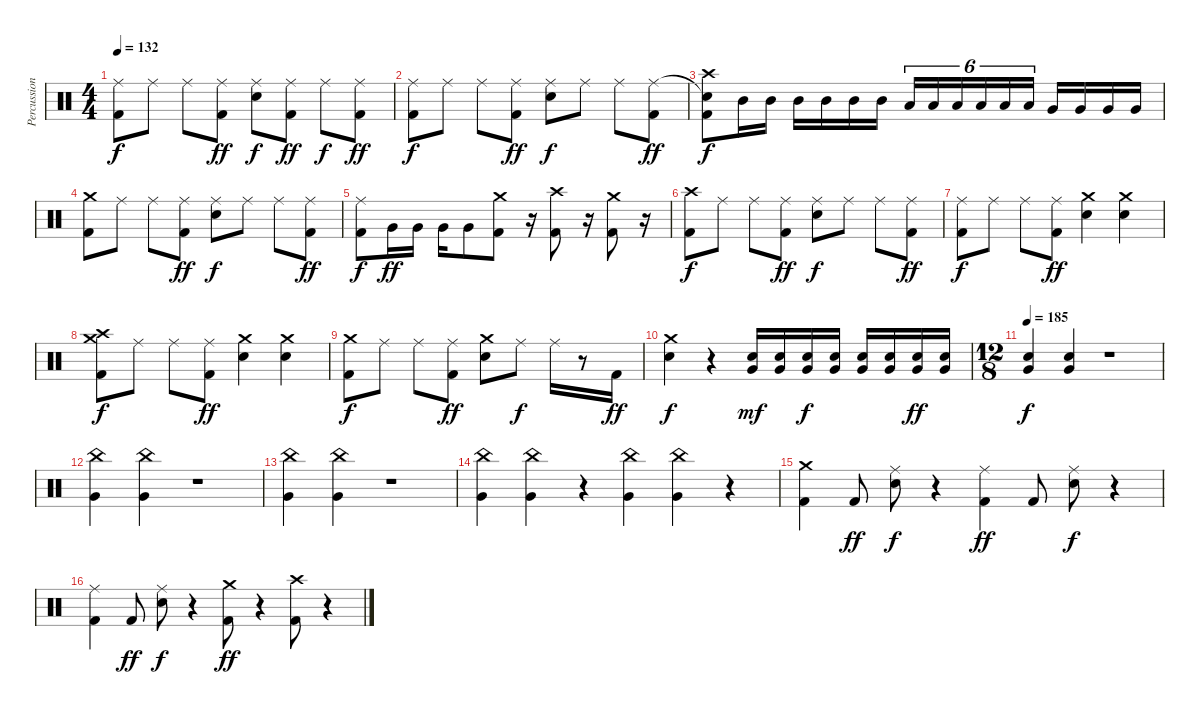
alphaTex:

\track ("Percussion" "Percussion") {instrument percussion}
\staff {score}
\articulation defaults
\ts (4 4)
\tempo 132
\clef neutral
\ks c
("Kick (hit) 2" "Ride (middle)").8{dy f} "Ride (middle)".8 "Ride (middle)".8 ("Kick (hit) 2" "Ride (middle)").8{dy ff} ("Snare (hit) 2" "Ride (middle)").8{dy f} ("Kick (hit) 2" "Ride (middle)").8{dy ff} "Ride (middle)".8{dy f} ("Kick (hit) 2" "Ride (middle)").8{dy ff} |
("Kick (hit) 2" "Ride (middle)").8{dy f} "Ride (middle)".8 "Ride (middle)".8 ("Kick (hit) 2" "Ride (middle)").8{dy ff} ("Snare (hit) 2" "Ride (middle)").8{dy f} "Ride (middle)".8 "Ride (middle)".8 ("Kick (hit) 2" "Ride (middle)").8{dy ff} |
("Kick (hit) 2" "Snare (hit)"{t} "Crash high (hit)").8{dy f} "Mid Tom (hit)".16 "Mid Tom (hit)".16 "Mid Tom (hit)".16 "Mid Tom (hit)".16 "Mid Tom (hit)".16 "Mid Tom (hit)".16 "Low Tom (hit)".16{tu (6 4)} "Low Tom (hit)".16{tu (6 4)} "Low Tom (hit)".16{tu (6 4)} "Low Tom (hit)".16{tu (6 4)} "Low Tom (hit)".16{tu (6 4)} "Low Tom (hit)".16{tu (6 4)} "Very Low Tom (hit)".16 "Very Low Tom (hit)".16 "Very Low Tom (hit)".16 "Very Low Tom (hit)".16 |
("Kick (hit) 2" "Crash medium (hit)").8 "Ride (middle)".8 "Ride (middle)".8 ("Kick (hit) 2" "Ride (middle)").8{dy ff} ("Snare (hit) 2" "Ride (middle)").8{dy f} "Ride (middle)".8 "Ride (middle)".8 ("Kick (hit) 2" "Ride (middle)").8{dy ff} |
("Kick (hit) 2" "Ride (middle)").8{dy f} "Very Low Tom (hit)".16{dy ff} "Very Low Tom (hit)".16 "Very Low Tom (hit)".16 "Very Low Tom (hit)".8 ("Kick (hit) 2" "Crash medium (hit)").8 r.16 ("Kick (hit) 2" "Crash high (hit)").8 r.16 ("Kick (hit) 2" "Crash medium (hit)").8 r.16 |
("Kick (hit) 2" "Crash high (hit)").8{dy f} "Ride (middle)".8 "Ride (middle)".8 ("Kick (hit) 2" "Ride (middle)").8{dy ff} ("Snare (hit) 2" "Ride (middle)").8{dy f} "Ride (middle)".8 "Ride (middle)".8 ("Kick (hit) 2" "Ride (middle)").8{dy ff} |
("Kick (hit) 2" "Ride (middle)").8{dy f} "Ride (middle)".8 "Ride (middle)".8 ("Kick (hit) 2" "Ride (middle)").8{dy ff} ("Snare (hit) 2" "Crash medium (hit)").4 ("Snare (hit) 2" "Crash medium (hit)").4 |
("Kick (hit) 2" "Crash high (hit)" "Crash medium (hit)").8{dy f} "Ride (middle)".8 "Ride (middle)".8 ("Kick (hit) 2" "Ride (middle)").8{dy ff} ("Snare (hit) 2" "Crash medium (hit)").4 ("Snare (hit) 2" "Crash medium (hit)").4 |
("Kick (hit) 2" "Crash medium (hit)").8{dy f} "Ride (middle)".8 "Ride (middle)".8 ("Kick (hit) 2" "Ride (middle)").8{dy ff} ("Snare (hit) 2" "Crash medium (hit)").8 "Ride (middle)".8{dy f} "Ride (middle)".16 r.8 "Kick (hit) 2".16{dy ff} |
("Snare (hit) 2" "Crash medium (hit)").4{dy f} r.4 ("Snare (hit) 2" "Very Low Tom (hit)").16{dy mf} ("Snare (hit) 2" "Very Low Tom (hit)").16 ("Snare (hit) 2" "Very Low Tom (hit)").16{dy f} ("Snare (hit) 2" "Very Low Tom (hit)").16 ("Snare (hit) 2" "Very Low Tom (hit)").16 ("Snare (hit) 2" "Very Low Tom (hit)").16 ("Snare (hit) 2" "Very Low Tom (hit)").16{dy ff} ("Snare (hit) 2" "Very Low Tom (hit)").16 |
\ts (12 8)
\tempo 185
("Snare (hit) 2" "Very Low Tom (hit)").4{dy f} ("Snare (hit) 2" "Very Low Tom (hit)").4 r.1 |
("Very Low Tom (hit)" "China (hit)").4 ("Very Low Tom (hit)" "China (hit)").4 r.1 |
("Very Low Tom (hit)" "China (hit)").4 ("Very Low Tom (hit)" "China (hit)").4 r.1 |
("Very Low Tom (hit)" "China (hit)").4 ("Very Low Tom (hit)" "China (hit)").4 r.4 ("Very Low Tom (hit)" "China (hit)").4 ("Very Low Tom (hit)" "China (hit)").4 r.4 |
("Kick (hit) 2" "Crash medium (hit)").4 "Kick (hit) 2".8{dy ff} ("Snare (hit) 2" "Ride (middle)").8{dy f} r.4 ("Kick (hit) 2" "Ride (middle)").4{dy ff} "Kick (hit) 2".8 ("Snare (hit) 2" "Ride (middle)").8{dy f} r.4 |
("Kick (hit) 2" "Ride (middle)").4 "Kick (hit) 2".8{dy ff} ("Snare (hit) 2" "Ride (middle)").8{dy f} r.4 ("Kick (hit) 2" "Crash medium (hit)").8{dy ff} r.4 ("Kick (hit) 2" "Crash high (hit)").8 r.4
